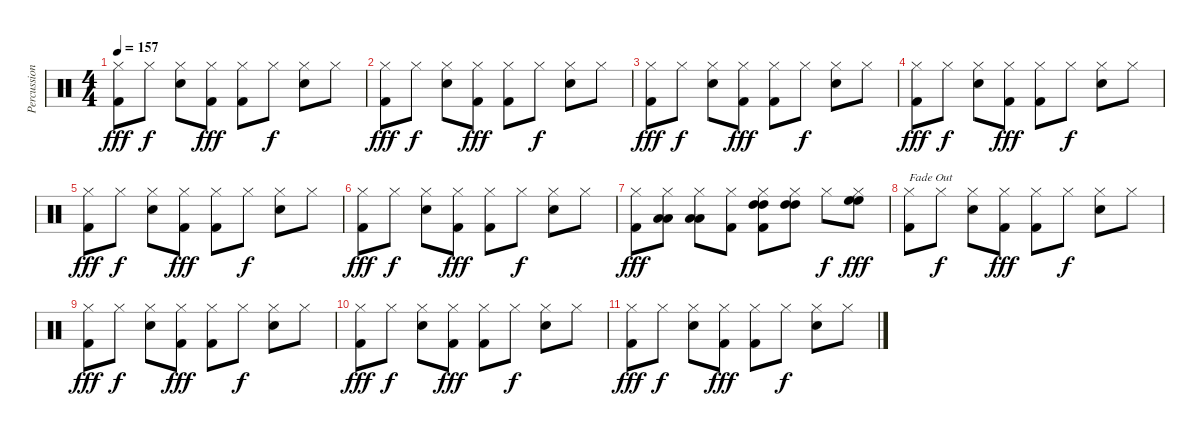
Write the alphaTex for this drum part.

\track ("Percussioni" "Percussion") {instrument percussion}
\staff {score}
\articulation defaults
\ts (4 4)
\tempo 157
\clef neutral
\ks c
("Hi-Hat (closed)" "Kick (hit) 2").8{dy fff} "Hi-Hat (closed)".8{dy f} ("Hi-Hat (closed)" "Snare (hit) 2").8 ("Hi-Hat (closed)" "Kick (hit) 2").8{dy fff} ("Hi-Hat (closed)" "Kick (hit) 2").8 "Hi-Hat (closed)".8{dy f} ("Hi-Hat (closed)" "Snare (hit) 2").8 "Hi-Hat (closed)".8 |
("Hi-Hat (closed)" "Kick (hit) 2").8{dy fff} "Hi-Hat (closed)".8{dy f} ("Hi-Hat (closed)" "Snare (hit) 2").8 ("Hi-Hat (closed)" "Kick (hit) 2").8{dy fff} ("Hi-Hat (closed)" "Kick (hit) 2").8 "Hi-Hat (closed)".8{dy f} ("Hi-Hat (closed)" "Snare (hit) 2").8 "Hi-Hat (closed)".8 |
("Hi-Hat (closed)" "Kick (hit) 2").8{dy fff} "Hi-Hat (closed)".8{dy f} ("Hi-Hat (closed)" "Snare (hit) 2").8 ("Hi-Hat (closed)" "Kick (hit) 2").8{dy fff} ("Hi-Hat (closed)" "Kick (hit) 2").8 "Hi-Hat (closed)".8{dy f} ("Hi-Hat (closed)" "Snare (hit) 2").8 "Hi-Hat (closed)".8 |
("Hi-Hat (closed)" "Kick (hit) 2").8{dy fff} "Hi-Hat (closed)".8{dy f} ("Hi-Hat (closed)" "Snare (hit) 2").8 ("Hi-Hat (closed)" "Kick (hit) 2").8{dy fff} ("Hi-Hat (closed)" "Kick (hit) 2").8 "Hi-Hat (closed)".8{dy f} ("Hi-Hat (closed)" "Snare (hit) 2").8 "Hi-Hat (closed)".8 |
("Hi-Hat (closed)" "Kick (hit) 2").8{dy fff} "Hi-Hat (closed)".8{dy f} ("Hi-Hat (closed)" "Snare (hit) 2").8 ("Hi-Hat (closed)" "Kick (hit) 2").8{dy fff} ("Hi-Hat (closed)" "Kick (hit) 2").8 "Hi-Hat (closed)".8{dy f} ("Hi-Hat (closed)" "Snare (hit) 2").8 "Hi-Hat (closed)".8 |
("Hi-Hat (closed)" "Kick (hit) 2").8{dy fff} "Hi-Hat (closed)".8{dy f} ("Hi-Hat (closed)" "Snare (hit) 2").8 ("Hi-Hat (closed)" "Kick (hit) 2").8{dy fff} ("Hi-Hat (closed)" "Kick (hit) 2").8 "Hi-Hat (closed)".8{dy f} ("Hi-Hat (closed)" "Snare (hit) 2").8 "Hi-Hat (closed)".8 |
("Hi-Hat (closed)" "Kick (hit) 2").8{dy fff} ("Low Tom (hit)" "Low Tom (hit)" "Hi-Hat (closed)").8 ("Low Tom (hit)" "Low Tom (hit)" "Hi-Hat (closed)").8 ("Hi-Hat (closed)" "Kick (hit) 2").8 ("High Tom (hit)" "High Tom (hit)" "Hi-Hat (closed)" "Kick (hit) 2").8 ("High Tom (hit)" "High Tom (hit)" "Hi-Hat (closed)").8 "Hi-Hat (closed)".8{dy f} ("High Floor Tom (hit)" "High Floor Tom (hit)" "Hi-Hat (closed)").8{dy fff} |
("Hi-Hat (closed)" "Kick (hit) 2").8{txt "Fade Out"} "Hi-Hat (closed)".8{dy f} ("Hi-Hat (closed)" "Snare (hit) 2").8 ("Hi-Hat (closed)" "Kick (hit) 2").8{dy fff} ("Hi-Hat (closed)" "Kick (hit) 2").8 "Hi-Hat (closed)".8{dy f} ("Hi-Hat (closed)" "Snare (hit) 2").8 "Hi-Hat (closed)".8 |
("Hi-Hat (closed)" "Kick (hit) 2").8{dy fff} "Hi-Hat (closed)".8{dy f} ("Hi-Hat (closed)" "Snare (hit) 2").8 ("Hi-Hat (closed)" "Kick (hit) 2").8{dy fff} ("Hi-Hat (closed)" "Kick (hit) 2").8 "Hi-Hat (closed)".8{dy f} ("Hi-Hat (closed)" "Snare (hit) 2").8 "Hi-Hat (closed)".8 |
("Hi-Hat (closed)" "Kick (hit) 2").8{dy fff} "Hi-Hat (closed)".8{dy f} ("Hi-Hat (closed)" "Snare (hit) 2").8 ("Hi-Hat (closed)" "Kick (hit) 2").8{dy fff} ("Hi-Hat (closed)" "Kick (hit) 2").8 "Hi-Hat (closed)".8{dy f} ("Hi-Hat (closed)" "Snare (hit) 2").8 "Hi-Hat (closed)".8 |
("Hi-Hat (closed)" "Kick (hit) 2").8{dy fff} "Hi-Hat (closed)".8{dy f} ("Hi-Hat (closed)" "Snare (hit) 2").8 ("Hi-Hat (closed)" "Kick (hit) 2").8{dy fff} ("Hi-Hat (closed)" "Kick (hit) 2").8 "Hi-Hat (closed)".8{dy f} ("Hi-Hat (closed)" "Snare (hit) 2").8 "Hi-Hat (closed)".8
